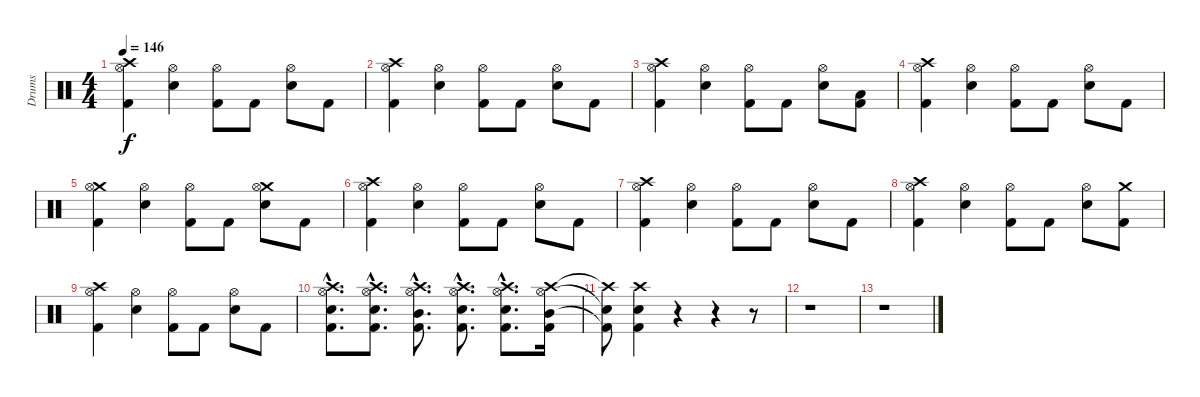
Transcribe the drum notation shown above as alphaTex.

\track ("Drums" "Drums") {instrument percussion}
\staff {score}
\articulation defaults
\ts (4 4)
\tempo 146
\clef neutral
\ks c
("Crash high (hit)" "Hi-Hat (open)" "Kick (hit) 2").4{dy f} ("Hi-Hat (open)" "Electric Snare (hit)").4 ("Hi-Hat (open)" "Kick (hit) 2").8 "Kick (hit) 2".8 ("Hi-Hat (open)" "Electric Snare (hit)").8 "Kick (hit) 2".8 |
("Crash high (hit)" "Hi-Hat (open)" "Kick (hit) 2").4 ("Hi-Hat (open)" "Electric Snare (hit)").4 ("Hi-Hat (open)" "Kick (hit) 2").8 "Kick (hit) 2".8 ("Hi-Hat (open)" "Electric Snare (hit)").8 "Kick (hit) 2".8 |
("Crash high (hit)" "Hi-Hat (open)" "Kick (hit) 2").4 ("Hi-Hat (open)" "Electric Snare (hit)").4 ("Hi-Hat (open)" "Kick (hit) 2").8 "Kick (hit) 2".8 ("Hi-Hat (open)" "Electric Snare (hit)").8 ("Low Tom (hit)" "Kick (hit) 2").8 |
("Crash high (hit)" "Hi-Hat (open)" "Kick (hit) 2").4 ("Hi-Hat (open)" "Electric Snare (hit)").4 ("Hi-Hat (open)" "Kick (hit) 2").8 "Kick (hit) 2".8 ("Hi-Hat (open)" "Electric Snare (hit)").8 "Kick (hit) 2".8 |
("Crash medium (hit)" "Hi-Hat (open)" "Kick (hit) 2").4 ("Hi-Hat (open)" "Electric Snare (hit)").4 ("Hi-Hat (open)" "Kick (hit) 2").8 "Kick (hit) 2".8 ("Crash medium (hit)" "Hi-Hat (open)" "Electric Snare (hit)").8 "Kick (hit) 2".8 |
("Crash high (hit)" "Hi-Hat (open)" "Kick (hit) 2").4 ("Hi-Hat (open)" "Electric Snare (hit)").4 ("Hi-Hat (open)" "Kick (hit) 2").8 "Kick (hit) 2".8 ("Hi-Hat (open)" "Electric Snare (hit)").8 "Kick (hit) 2".8 |
("Crash high (hit)" "Hi-Hat (open)" "Kick (hit) 2").4 ("Hi-Hat (open)" "Electric Snare (hit)").4 ("Hi-Hat (open)" "Kick (hit) 2").8 "Kick (hit) 2".8 ("Hi-Hat (open)" "Electric Snare (hit)").8 "Kick (hit) 2".8 |
("Crash high (hit)" "Hi-Hat (open)" "Kick (hit) 2").4 ("Hi-Hat (open)" "Electric Snare (hit)").4 ("Hi-Hat (open)" "Kick (hit) 2").8 "Kick (hit) 2".8 ("Hi-Hat (open)" "Electric Snare (hit)").8 ("Crash medium (hit)" "Kick (hit) 2").8 |
("Crash high (hit)" "Hi-Hat (open)" "Kick (hit) 2").4 ("Hi-Hat (open)" "Electric Snare (hit)").4 ("Hi-Hat (open)" "Kick (hit) 2").8 "Kick (hit) 2".8 ("Hi-Hat (open)" "Electric Snare (hit)").8 "Kick (hit) 2".8 |
("Crash high (hit)"{hac} "Hi-Hat (open)"{hac} "Electric Snare (hit)"{hac} "Kick (hit) 2"{hac}).8{d} ("Crash high (hit)"{hac} "Hi-Hat (open)"{hac} "Electric Snare (hit)"{hac} "Kick (hit) 2"{hac}).8{d} ("Crash high (hit)"{hac} "Hi-Hat (open)"{hac} "Mid Tom (hit)"{hac} "Kick (hit) 2"{hac}).8{d} ("Crash high (hit)"{hac} "Hi-Hat (open)"{hac} "Electric Snare (hit)"{hac} "Kick (hit) 2"{hac}).8{d} ("Crash high (hit)"{hac} "Hi-Hat (open)"{hac} "Electric Snare (hit)"{hac} "Kick (hit) 2"{hac}).8{d} ("Crash high (hit)" "Hi-Hat (open)" "Mid Tom (hit)" "Kick (hit) 2").16 |
("Crash high (hit)"{t} "Electric Snare (hit)"{t} "Kick (hit) 2"{t}).8 ("Crash high (hit)" "Electric Snare (hit)" "Kick (hit) 2").4 r.4 r.4 r.8 |
r.1 |
r.1
